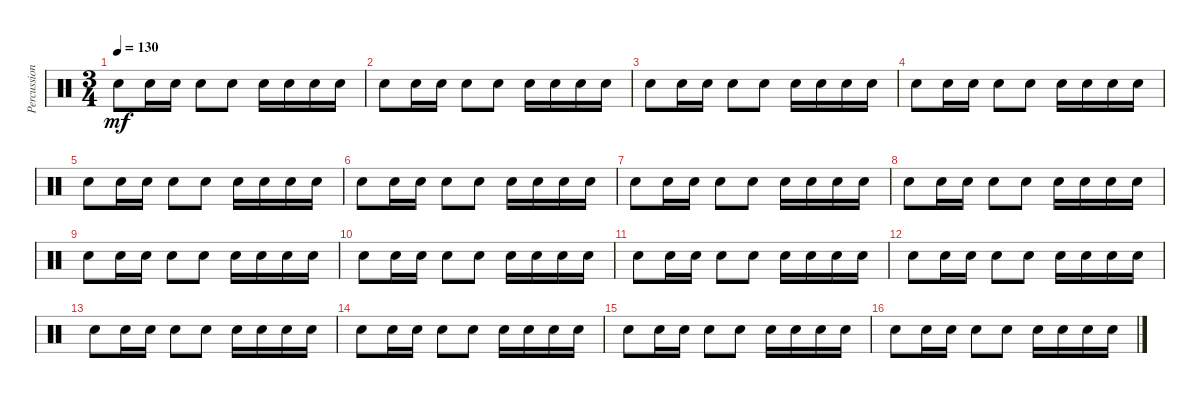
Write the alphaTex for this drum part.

\track ("Percussion" "Percussion") {instrument percussion}
\staff {score}
\articulation defaults
\ts (3 4)
\tempo 130
\clef neutral
\ks c "Electric Snare (hit)".8{dy mf} "Electric Snare (hit)".16 "Electric Snare (hit)".16 "Electric Snare (hit)".8 "Electric Snare (hit)".8 "Electric Snare (hit)".16 "Electric Snare (hit)".16 "Electric Snare (hit)".16 "Electric Snare (hit)".16
|
"Electric Snare (hit)".8 "Electric Snare (hit)".16 "Electric Snare (hit)".16 "Electric Snare (hit)".8 "Electric Snare (hit)".8 "Electric Snare (hit)".16 "Electric Snare (hit)".16 "Electric Snare (hit)".16 "Electric Snare (hit)".16 |
"Electric Snare (hit)".8 "Electric Snare (hit)".16 "Electric Snare (hit)".16 "Electric Snare (hit)".8 "Electric Snare (hit)".8 "Electric Snare (hit)".16 "Electric Snare (hit)".16 "Electric Snare (hit)".16 "Electric Snare (hit)".16 |
"Electric Snare (hit)".8 "Electric Snare (hit)".16 "Electric Snare (hit)".16 "Electric Snare (hit)".8 "Electric Snare (hit)".8 "Electric Snare (hit)".16 "Electric Snare (hit)".16 "Electric Snare (hit)".16 "Electric Snare (hit)".16 |
"Electric Snare (hit)".8 "Electric Snare (hit)".16 "Electric Snare (hit)".16 "Electric Snare (hit)".8 "Electric Snare (hit)".8 "Electric Snare (hit)".16 "Electric Snare (hit)".16 "Electric Snare (hit)".16 "Electric Snare (hit)".16 |
"Electric Snare (hit)".8 "Electric Snare (hit)".16 "Electric Snare (hit)".16 "Electric Snare (hit)".8 "Electric Snare (hit)".8 "Electric Snare (hit)".16 "Electric Snare (hit)".16 "Electric Snare (hit)".16 "Electric Snare (hit)".16 |
"Electric Snare (hit)".8 "Electric Snare (hit)".16 "Electric Snare (hit)".16 "Electric Snare (hit)".8 "Electric Snare (hit)".8 "Electric Snare (hit)".16 "Electric Snare (hit)".16 "Electric Snare (hit)".16 "Electric Snare (hit)".16 |
"Electric Snare (hit)".8 "Electric Snare (hit)".16 "Electric Snare (hit)".16 "Electric Snare (hit)".8 "Electric Snare (hit)".8 "Electric Snare (hit)".16 "Electric Snare (hit)".16 "Electric Snare (hit)".16 "Electric Snare (hit)".16 |
"Electric Snare (hit)".8 "Electric Snare (hit)".16 "Electric Snare (hit)".16 "Electric Snare (hit)".8 "Electric Snare (hit)".8 "Electric Snare (hit)".16 "Electric Snare (hit)".16 "Electric Snare (hit)".16 "Electric Snare (hit)".16 |
"Electric Snare (hit)".8 "Electric Snare (hit)".16 "Electric Snare (hit)".16 "Electric Snare (hit)".8 "Electric Snare (hit)".8 "Electric Snare (hit)".16 "Electric Snare (hit)".16 "Electric Snare (hit)".16 "Electric Snare (hit)".16 |
"Electric Snare (hit)".8 "Electric Snare (hit)".16 "Electric Snare (hit)".16 "Electric Snare (hit)".8 "Electric Snare (hit)".8 "Electric Snare (hit)".16 "Electric Snare (hit)".16 "Electric Snare (hit)".16 "Electric Snare (hit)".16 |
"Electric Snare (hit)".8 "Electric Snare (hit)".16 "Electric Snare (hit)".16 "Electric Snare (hit)".8 "Electric Snare (hit)".8 "Electric Snare (hit)".16 "Electric Snare (hit)".16 "Electric Snare (hit)".16 "Electric Snare (hit)".16 |
"Electric Snare (hit)".8 "Electric Snare (hit)".16 "Electric Snare (hit)".16 "Electric Snare (hit)".8 "Electric Snare (hit)".8 "Electric Snare (hit)".16 "Electric Snare (hit)".16 "Electric Snare (hit)".16 "Electric Snare (hit)".16 |
"Electric Snare (hit)".8 "Electric Snare (hit)".16 "Electric Snare (hit)".16 "Electric Snare (hit)".8 "Electric Snare (hit)".8 "Electric Snare (hit)".16 "Electric Snare (hit)".16 "Electric Snare (hit)".16 "Electric Snare (hit)".16 |
"Electric Snare (hit)".8 "Electric Snare (hit)".16 "Electric Snare (hit)".16 "Electric Snare (hit)".8 "Electric Snare (hit)".8 "Electric Snare (hit)".16 "Electric Snare (hit)".16 "Electric Snare (hit)".16 "Electric Snare (hit)".16 |
"Electric Snare (hit)".8 "Electric Snare (hit)".16 "Electric Snare (hit)".16 "Electric Snare (hit)".8 "Electric Snare (hit)".8 "Electric Snare (hit)".16 "Electric Snare (hit)".16 "Electric Snare (hit)".16 "Electric Snare (hit)".16
